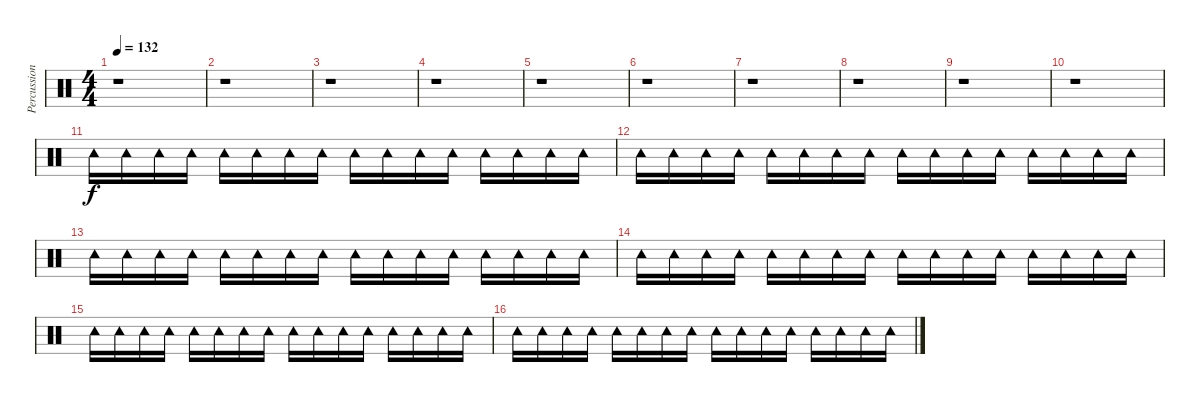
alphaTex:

\track ("Percussion" "Percussion") {instrument percussion}
\staff {score}
\articulation defaults
\ts (4 4)
\tempo 132
\clef neutral
\ks c
r.1{dy f} |
r.1 |
r.1 |
r.1 |
r.1 |
r.1 |
r.1 |
r.1 |
r.1 |
r.1 |
"Tambourine (hit)".16 "Tambourine (hit)".16 "Tambourine (hit)".16 "Tambourine (hit)".16 "Tambourine (hit)".16 "Tambourine (hit)".16 "Tambourine (hit)".16 "Tambourine (hit)".16 "Tambourine (hit)".16 "Tambourine (hit)".16 "Tambourine (hit)".16 "Tambourine (hit)".16 "Tambourine (hit)".16 "Tambourine (hit)".16 "Tambourine (hit)".16 "Tambourine (hit)".16 |
"Tambourine (hit)".16 "Tambourine (hit)".16 "Tambourine (hit)".16 "Tambourine (hit)".16 "Tambourine (hit)".16 "Tambourine (hit)".16 "Tambourine (hit)".16 "Tambourine (hit)".16 "Tambourine (hit)".16 "Tambourine (hit)".16 "Tambourine (hit)".16 "Tambourine (hit)".16 "Tambourine (hit)".16 "Tambourine (hit)".16 "Tambourine (hit)".16 "Tambourine (hit)".16 |
"Tambourine (hit)".16 "Tambourine (hit)".16 "Tambourine (hit)".16 "Tambourine (hit)".16 "Tambourine (hit)".16 "Tambourine (hit)".16 "Tambourine (hit)".16 "Tambourine (hit)".16 "Tambourine (hit)".16 "Tambourine (hit)".16 "Tambourine (hit)".16 "Tambourine (hit)".16 "Tambourine (hit)".16 "Tambourine (hit)".16 "Tambourine (hit)".16 "Tambourine (hit)".16 |
"Tambourine (hit)".16 "Tambourine (hit)".16 "Tambourine (hit)".16 "Tambourine (hit)".16 "Tambourine (hit)".16 "Tambourine (hit)".16 "Tambourine (hit)".16 "Tambourine (hit)".16 "Tambourine (hit)".16 "Tambourine (hit)".16 "Tambourine (hit)".16 "Tambourine (hit)".16 "Tambourine (hit)".16 "Tambourine (hit)".16 "Tambourine (hit)".16 "Tambourine (hit)".16 |
"Tambourine (hit)".16 "Tambourine (hit)".16 "Tambourine (hit)".16 "Tambourine (hit)".16 "Tambourine (hit)".16 "Tambourine (hit)".16 "Tambourine (hit)".16 "Tambourine (hit)".16 "Tambourine (hit)".16 "Tambourine (hit)".16 "Tambourine (hit)".16 "Tambourine (hit)".16 "Tambourine (hit)".16 "Tambourine (hit)".16 "Tambourine (hit)".16 "Tambourine (hit)".16 |
"Tambourine (hit)".16 "Tambourine (hit)".16 "Tambourine (hit)".16 "Tambourine (hit)".16 "Tambourine (hit)".16 "Tambourine (hit)".16 "Tambourine (hit)".16 "Tambourine (hit)".16 "Tambourine (hit)".16 "Tambourine (hit)".16 "Tambourine (hit)".16 "Tambourine (hit)".16 "Tambourine (hit)".16 "Tambourine (hit)".16 "Tambourine (hit)".16 "Tambourine (hit)".16
